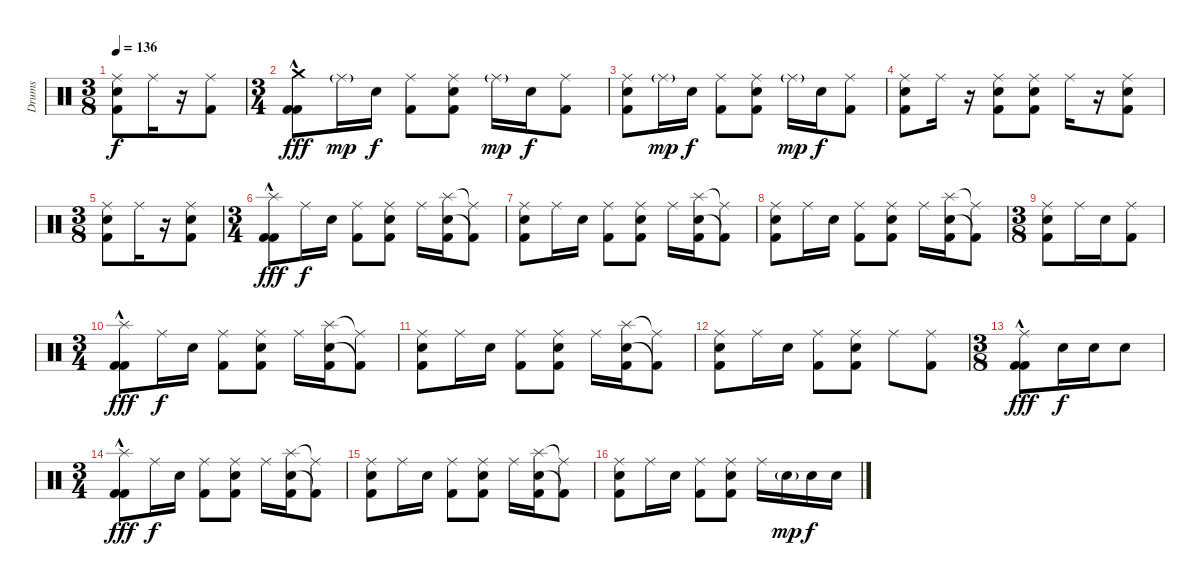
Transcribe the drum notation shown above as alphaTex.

\track ("Drums" "Drums") {instrument percussion}
\staff {score}
\articulation defaults
\ts (3 8)
\tempo 136
\clef neutral
\ks c
("Ride (middle)" "Electric Snare (hit)" "Kick (hit) 2").8{dy f} "Ride (middle)".16 r.16 ("Ride (middle)" "Kick (hit) 2").8 |
\ts (3 4)
("Crash medium (hit)" "Kick (hit) 2"{hac} "Kick (hit) 2"{hac}).8{dy fff} "Ride (middle)"{g}.16{dy mp} "Electric Snare (hit)".16{dy f} ("Ride (middle)" "Kick (hit) 2").8 ("Ride (middle)" "Electric Snare (hit)" "Kick (hit) 2").8 "Ride (middle)"{g}.16{dy mp} "Electric Snare (hit)".16{dy f} ("Ride (middle)" "Kick (hit) 2").8 |
("Ride (middle)" "Electric Snare (hit)" "Kick (hit) 2").8 "Ride (middle)"{g}.16{dy mp} "Electric Snare (hit)".16{dy f} ("Ride (middle)" "Kick (hit) 2").8 ("Ride (middle)" "Electric Snare (hit)" "Kick (hit) 2").8 "Ride (middle)"{g}.16{dy mp} "Electric Snare (hit)".16{dy f} ("Ride (middle)" "Kick (hit) 2").8 |
("Ride (middle)" "Electric Snare (hit)" "Kick (hit) 2").8 "Ride (middle)".16 r.16 ("Ride (middle)" "Electric Snare (hit)" "Kick (hit) 2").8 ("Ride (middle)" "Electric Snare (hit)" "Kick (hit) 2").8 "Ride (middle)".16 r.16 ("Ride (middle)" "Electric Snare (hit)" "Kick (hit) 2").8 |
\ts (3 8)
("Ride (middle)" "Electric Snare (hit)" "Kick (hit) 2").8 "Ride (middle)".16 r.16 ("Ride (middle)" "Electric Snare (hit)" "Kick (hit) 2").8 |
\ts (3 4)
("Splash (hit)" "Kick (hit) 2"{hac} "Kick (hit) 2"{hac}).8{dy fff} "Ride (middle)".16{dy f} "Electric Snare (hit)".16 ("Ride (middle)" "Kick (hit) 2").8 ("Ride (middle)" "Electric Snare (hit)" "Kick (hit) 2").8 "Ride (middle)".16 ("Splash (hit)" "Electric Snare (hit)" "Kick (hit) 2").16 ("Ride (middle)"{t} "Kick (hit) 2"{t}).8 |
("Ride (middle)" "Electric Snare (hit)" "Kick (hit) 2").8 "Ride (middle)".16 "Electric Snare (hit)".16 ("Ride (middle)" "Kick (hit) 2").8 ("Ride (middle)" "Electric Snare (hit)" "Kick (hit) 2").8 "Ride (middle)".16 ("Splash (hit)" "Electric Snare (hit)" "Kick (hit) 2").16 ("Ride (middle)"{t} "Kick (hit) 2"{t}).8 |
("Ride (middle)" "Electric Snare (hit)" "Kick (hit) 2").8 "Ride (middle)".16 "Electric Snare (hit)".16 ("Ride (middle)" "Kick (hit) 2").8 ("Ride (middle)" "Electric Snare (hit)" "Kick (hit) 2").8 "Ride (middle)".16 ("Splash (hit)" "Electric Snare (hit)" "Kick (hit) 2").16 ("Ride (middle)"{t} "Kick (hit) 2"{t}).8 |
\ts (3 8)
("Ride (middle)" "Electric Snare (hit)" "Kick (hit) 2").8 "Ride (middle)".16 "Electric Snare (hit)".16 ("Ride (middle)" "Kick (hit) 2").8 |
\ts (3 4)
("Splash (hit)" "Kick (hit) 2"{hac} "Kick (hit) 2"{hac}).8{dy fff} "Ride (middle)".16{dy f} "Electric Snare (hit)".16 ("Ride (middle)" "Kick (hit) 2").8 ("Ride (middle)" "Electric Snare (hit)" "Kick (hit) 2").8 "Ride (middle)".16 ("Splash (hit)" "Electric Snare (hit)" "Kick (hit) 2").16 ("Ride (middle)"{t} "Kick (hit) 2"{t}).8 |
("Ride (middle)" "Electric Snare (hit)" "Kick (hit) 2").8 "Ride (middle)".16 "Electric Snare (hit)".16 ("Ride (middle)" "Kick (hit) 2").8 ("Ride (middle)" "Electric Snare (hit)" "Kick (hit) 2").8 "Ride (middle)".16 ("Splash (hit)" "Electric Snare (hit)" "Kick (hit) 2").16 ("Ride (middle)"{t} "Kick (hit) 2"{t}).8 |
("Ride (middle)" "Electric Snare (hit)" "Kick (hit) 2").8 "Ride (middle)".16 "Electric Snare (hit)".16 ("Ride (middle)" "Kick (hit) 2").8 ("Ride (middle)" "Electric Snare (hit)" "Kick (hit) 2").8 "Ride (middle)".8 ("Ride (middle)" "Kick (hit) 2").8 |
\ts (3 8)
("Ride (middle)" "Kick (hit) 2"{hac} "Kick (hit) 2"{hac}).8{dy fff} "Electric Snare (hit)".16{dy f} "Electric Snare (hit)".16 "Electric Snare (hit)".8 |
\ts (3 4)
("Splash (hit)" "Kick (hit) 2"{hac} "Kick (hit) 2"{hac}).8{dy fff} "Ride (middle)".16{dy f} "Electric Snare (hit)".16 ("Ride (middle)" "Kick (hit) 2").8 ("Ride (middle)" "Electric Snare (hit)" "Kick (hit) 2").8 "Ride (middle)".16 ("Splash (hit)" "Electric Snare (hit)" "Kick (hit) 2").16 ("Ride (middle)"{t} "Kick (hit) 2"{t}).8 |
("Ride (middle)" "Electric Snare (hit)" "Kick (hit) 2").8 "Ride (middle)".16 "Electric Snare (hit)".16 ("Ride (middle)" "Kick (hit) 2").8 ("Ride (middle)" "Electric Snare (hit)" "Kick (hit) 2").8 "Ride (middle)".16 ("Splash (hit)" "Electric Snare (hit)" "Kick (hit) 2").16 ("Ride (middle)"{t} "Kick (hit) 2"{t}).8 |
("Ride (middle)" "Electric Snare (hit)" "Kick (hit) 2").8 "Ride (middle)".16 "Electric Snare (hit)".16 ("Ride (middle)" "Kick (hit) 2").8 ("Ride (middle)" "Electric Snare (hit)" "Kick (hit) 2").8 "Ride (middle)".16 "Electric Snare (hit)"{g}.16{dy mp} "Electric Snare (hit)".16{dy f} "Electric Snare (hit)".16
